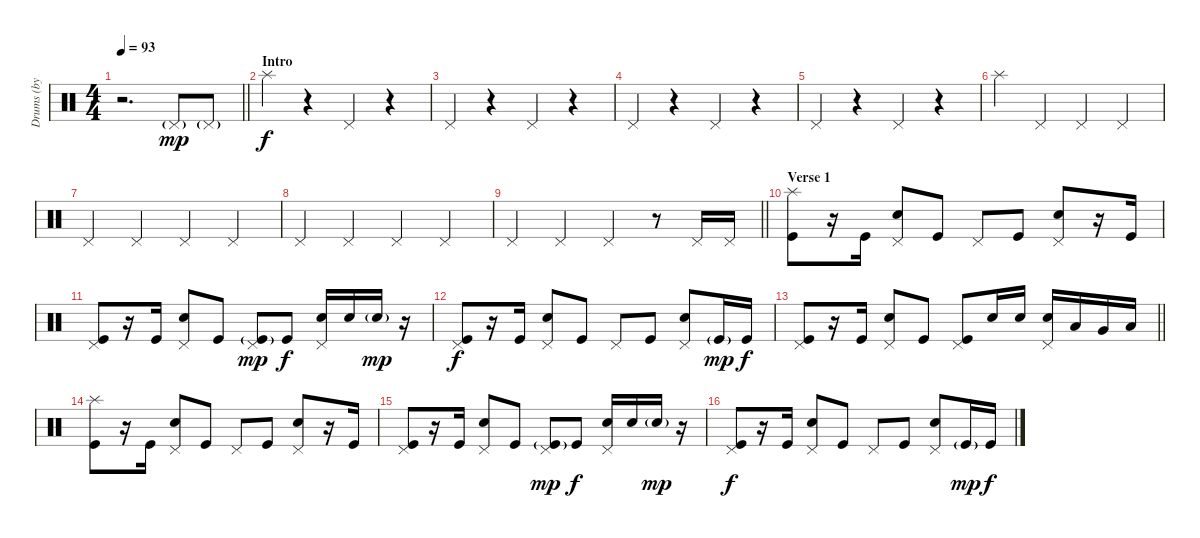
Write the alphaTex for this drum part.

\track ("Drums (by maxor)" "Drums (by ") {instrument percussion}
\staff {score}
\articulation defaults
\ts (4 4)
\tempo 93
\clef neutral
\barLineRight lightlight
\ks c
r.2{d dy mp} "Pedal Hi-Hat (hit)"{g}.8 "Pedal Hi-Hat (hit)"{g}.8 |
\section ("" "Intro")
"Splash (hit)".4{dy f} r.4 "Pedal Hi-Hat (hit)".4 r.4 |
"Pedal Hi-Hat (hit)".4 r.4 "Pedal Hi-Hat (hit)".4 r.4 |
"Pedal Hi-Hat (hit)".4 r.4 "Pedal Hi-Hat (hit)".4 r.4 |
"Pedal Hi-Hat (hit)".4 r.4 "Pedal Hi-Hat (hit)".4 r.4 |
"Splash (hit)".4 "Pedal Hi-Hat (hit)".4 "Pedal Hi-Hat (hit)".4 "Pedal Hi-Hat (hit)".4 |
"Pedal Hi-Hat (hit)".4 "Pedal Hi-Hat (hit)".4 "Pedal Hi-Hat (hit)".4 "Pedal Hi-Hat (hit)".4 |
"Pedal Hi-Hat (hit)".4 "Pedal Hi-Hat (hit)".4 "Pedal Hi-Hat (hit)".4 "Pedal Hi-Hat (hit)".4 |
\barLineRight lightlight "Pedal Hi-Hat (hit)".4 "Pedal Hi-Hat (hit)".4 "Pedal Hi-Hat (hit)".4
r.8 "Pedal Hi-Hat (hit)".16 "Pedal Hi-Hat (hit)".16 |
\section ("" "Verse 1")
("Splash (hit)" "Kick (hit)").8 r.16 "Kick (hit)".16 ("Pedal Hi-Hat (hit)" "Electric Snare (hit)").8 "Kick (hit)".8 "Pedal Hi-Hat (hit)".8 "Kick (hit)".8 ("Pedal Hi-Hat (hit)" "Electric Snare (hit)").8 r.16 "Kick (hit)".16 |
("Pedal Hi-Hat (hit)" "Kick (hit)").8 r.16 "Kick (hit)".16 ("Pedal Hi-Hat (hit)" "Electric Snare (hit)").8 "Kick (hit)".8 ("Pedal Hi-Hat (hit)" "Kick (hit)"{g}).8{dy mp} "Kick (hit)".8{dy f} ("Pedal Hi-Hat (hit)" "Electric Snare (hit)").16 "Electric Snare (hit)".16 "Electric Snare (hit)"{g}.16{dy mp} r.16 |
("Pedal Hi-Hat (hit)" "Kick (hit)").8{dy f} r.16 "Kick (hit)".16 ("Pedal Hi-Hat (hit)" "Electric Snare (hit)").8 "Kick (hit)".8 "Pedal Hi-Hat (hit)".8 "Kick (hit)".8 ("Pedal Hi-Hat (hit)" "Electric Snare (hit)").8 "Kick (hit)"{g}.16{dy mp} "Kick (hit)".16{dy f} |
\barLineRight lightlight
("Pedal Hi-Hat (hit)" "Kick (hit)").8 r.16 "Kick (hit)".16 ("Pedal Hi-Hat (hit)" "Electric Snare (hit)").8 "Kick (hit)".8 ("Pedal Hi-Hat (hit)" "Kick (hit)").8 "Electric Snare (hit)".16 "Electric Snare (hit)".16 ("Pedal Hi-Hat (hit)" "Electric Snare (hit)").16 "Low Tom (hit)".16 "Very Low Tom (hit)".16 "Low Tom (hit)".16 |
("Splash (hit)" "Kick (hit)").8 r.16 "Kick (hit)".16 ("Pedal Hi-Hat (hit)" "Electric Snare (hit)").8 "Kick (hit)".8 "Pedal Hi-Hat (hit)".8 "Kick (hit)".8 ("Pedal Hi-Hat (hit)" "Electric Snare (hit)").8 r.16 "Kick (hit)".16 |
("Pedal Hi-Hat (hit)" "Kick (hit)").8 r.16 "Kick (hit)".16 ("Pedal Hi-Hat (hit)" "Electric Snare (hit)").8 "Kick (hit)".8 ("Pedal Hi-Hat (hit)" "Kick (hit)"{g}).8{dy mp} "Kick (hit)".8{dy f} ("Pedal Hi-Hat (hit)" "Electric Snare (hit)").16 "Electric Snare (hit)".16 "Electric Snare (hit)"{g}.16{dy mp} r.16 |
("Pedal Hi-Hat (hit)" "Kick (hit)").8{dy f} r.16 "Kick (hit)".16 ("Pedal Hi-Hat (hit)" "Electric Snare (hit)").8 "Kick (hit)".8 "Pedal Hi-Hat (hit)".8 "Kick (hit)".8 ("Pedal Hi-Hat (hit)" "Electric Snare (hit)").8 "Kick (hit)"{g}.16{dy mp} "Kick (hit)".16{dy f}
